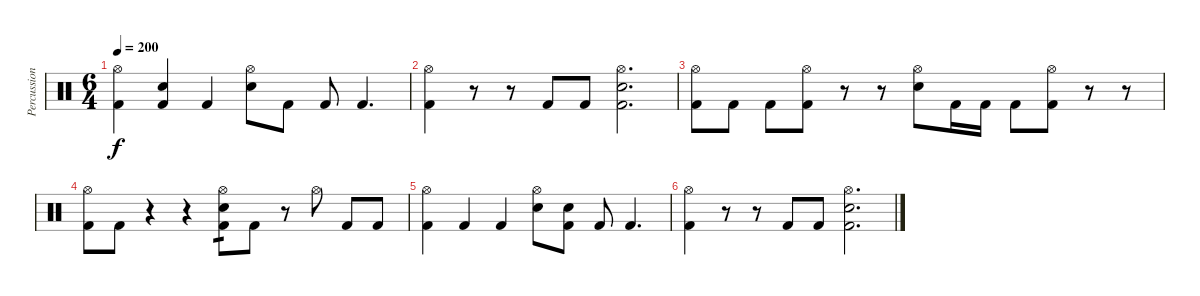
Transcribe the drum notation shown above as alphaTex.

\track ("Percussion" "Percussion") {instrument percussion}
\staff {score}
\articulation defaults
\ts (6 4)
\tempo 200
\clef neutral
\ks c
("Hi-Hat (open)" "Kick (hit) 2").4{dy f} ("Snare (hit)" "Kick (hit) 2").4 "Kick (hit) 2".4 ("Hi-Hat (open)" "Electric Snare (hit)").8 "Kick (hit) 2".8 "Kick (hit) 2".8 "Kick (hit) 2".4{d} |
("Hi-Hat (open)" "Kick (hit) 2").4 r.8 r.8 "Kick (hit) 2".8 "Kick (hit) 2".8 ("Hi-Hat (open)" "Electric Snare (hit)" "Kick (hit) 2").2{d} |
("Hi-Hat (open)" "Kick (hit) 2").8 "Kick (hit) 2".8 "Kick (hit) 2".8 ("Hi-Hat (open)" "Kick (hit) 2").8 r.8 r.8 ("Hi-Hat (open)" "Electric Snare (hit)").8 "Kick (hit) 2".16 "Kick (hit) 2".16 "Kick (hit) 2".8 ("Hi-Hat (open)" "Kick (hit) 2").8 r.8 r.8 |
("Hi-Hat (open)" "Kick (hit) 2").8 "Kick (hit) 2".8 r.4 r.4 ("Hi-Hat (open)" "Electric Snare (hit)" "Kick (hit) 2").8{tp 1} "Kick (hit) 2".8 r.8 "Hi-Hat (open)".8 "Kick (hit) 2".8 "Kick (hit) 2".8 |
("Hi-Hat (open)" "Kick (hit) 2").4 "Kick (hit) 2".4 "Kick (hit) 2".4 ("Hi-Hat (open)" "Electric Snare (hit)").8 ("Snare (hit)" "Kick (hit) 2").8 "Kick (hit) 2".8 "Kick (hit) 2".4{d} |
("Hi-Hat (open)" "Kick (hit) 2").4 r.8 r.8 "Kick (hit) 2".8 "Kick (hit) 2".8 ("Hi-Hat (open)" "Electric Snare (hit)" "Kick (hit) 2").2{d}
